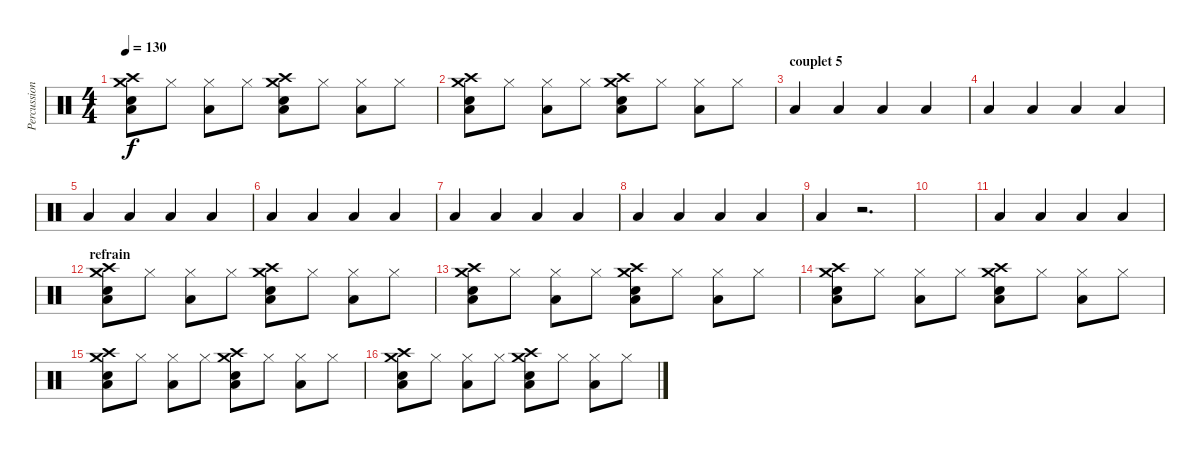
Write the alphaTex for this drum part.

\track ("Percussions" "Percussion") {instrument percussion}
\staff {score}
\articulation defaults
\ts (4 4)
\tempo 130
\clef neutral
\ks c
("Low Floor Tom (hit)" "Snare (hit) 2" "Crash high (hit)" "Crash medium (hit)").8{dy f} "Hi-Hat (closed)".8 ("Low Floor Tom (hit)" "Hi-Hat (closed)").8 "Hi-Hat (closed)".8 ("Low Floor Tom (hit)" "Snare (hit) 2" "Crash high (hit)" "Crash medium (hit)").8 "Hi-Hat (closed)".8 ("Low Floor Tom (hit)" "Hi-Hat (closed)").8 "Hi-Hat (closed)".8 |
("Low Floor Tom (hit)" "Snare (hit) 2" "Crash high (hit)" "Crash medium (hit)").8 "Hi-Hat (closed)".8 ("Low Floor Tom (hit)" "Hi-Hat (closed)").8 "Hi-Hat (closed)".8 ("Low Floor Tom (hit)" "Snare (hit) 2" "Crash high (hit)" "Crash medium (hit)").8 "Hi-Hat (closed)".8 ("Low Floor Tom (hit)" "Hi-Hat (closed)").8 "Hi-Hat (closed)".8 |
\section ("" "couplet 5")
"Low Floor Tom (hit)".4 "Low Floor Tom (hit)".4 "Low Floor Tom (hit)".4 "Low Floor Tom (hit)".4 |
"Low Floor Tom (hit)".4 "Low Floor Tom (hit)".4 "Low Floor Tom (hit)".4 "Low Floor Tom (hit)".4 |
"Low Floor Tom (hit)".4 "Low Floor Tom (hit)".4 "Low Floor Tom (hit)".4 "Low Floor Tom (hit)".4 |
"Low Floor Tom (hit)".4 "Low Floor Tom (hit)".4 "Low Floor Tom (hit)".4 "Low Floor Tom (hit)".4 |
"Low Floor Tom (hit)".4 "Low Floor Tom (hit)".4 "Low Floor Tom (hit)".4 "Low Floor Tom (hit)".4 |
"Low Floor Tom (hit)".4 "Low Floor Tom (hit)".4 "Low Floor Tom (hit)".4 "Low Floor Tom (hit)".4 |
"Low Floor Tom (hit)".4 r.2{d} |
|
"Low Floor Tom (hit)".4 "Low Floor Tom (hit)".4 "Low Floor Tom (hit)".4 "Low Floor Tom (hit)".4 |
\section ("" "refrain")
("Low Floor Tom (hit)" "Snare (hit) 2" "Crash high (hit)" "Crash medium (hit)").8 "Hi-Hat (closed)".8 ("Low Floor Tom (hit)" "Hi-Hat (closed)").8 "Hi-Hat (closed)".8 ("Low Floor Tom (hit)" "Snare (hit) 2" "Crash high (hit)" "Crash medium (hit)").8 "Hi-Hat (closed)".8 ("Low Floor Tom (hit)" "Hi-Hat (closed)").8 "Hi-Hat (closed)".8 |
("Low Floor Tom (hit)" "Snare (hit) 2" "Crash high (hit)" "Crash medium (hit)").8 "Hi-Hat (closed)".8 ("Low Floor Tom (hit)" "Hi-Hat (closed)").8 "Hi-Hat (closed)".8 ("Low Floor Tom (hit)" "Snare (hit) 2" "Crash high (hit)" "Crash medium (hit)").8 "Hi-Hat (closed)".8 ("Low Floor Tom (hit)" "Hi-Hat (closed)").8 "Hi-Hat (closed)".8 |
("Low Floor Tom (hit)" "Snare (hit) 2" "Crash high (hit)" "Crash medium (hit)").8 "Hi-Hat (closed)".8 ("Low Floor Tom (hit)" "Hi-Hat (closed)").8 "Hi-Hat (closed)".8 ("Low Floor Tom (hit)" "Snare (hit) 2" "Crash high (hit)" "Crash medium (hit)").8 "Hi-Hat (closed)".8 ("Low Floor Tom (hit)" "Hi-Hat (closed)").8 "Hi-Hat (closed)".8 |
("Low Floor Tom (hit)" "Snare (hit) 2" "Crash high (hit)" "Crash medium (hit)").8 "Hi-Hat (closed)".8 ("Low Floor Tom (hit)" "Hi-Hat (closed)").8 "Hi-Hat (closed)".8 ("Low Floor Tom (hit)" "Snare (hit) 2" "Crash high (hit)" "Crash medium (hit)").8 "Hi-Hat (closed)".8 ("Low Floor Tom (hit)" "Hi-Hat (closed)").8 "Hi-Hat (closed)".8 |
("Low Floor Tom (hit)" "Snare (hit) 2" "Crash high (hit)" "Crash medium (hit)").8 "Hi-Hat (closed)".8 ("Low Floor Tom (hit)" "Hi-Hat (closed)").8 "Hi-Hat (closed)".8 ("Low Floor Tom (hit)" "Snare (hit) 2" "Crash high (hit)" "Crash medium (hit)").8 "Hi-Hat (closed)".8 ("Low Floor Tom (hit)" "Hi-Hat (closed)").8 "Hi-Hat (closed)".8
